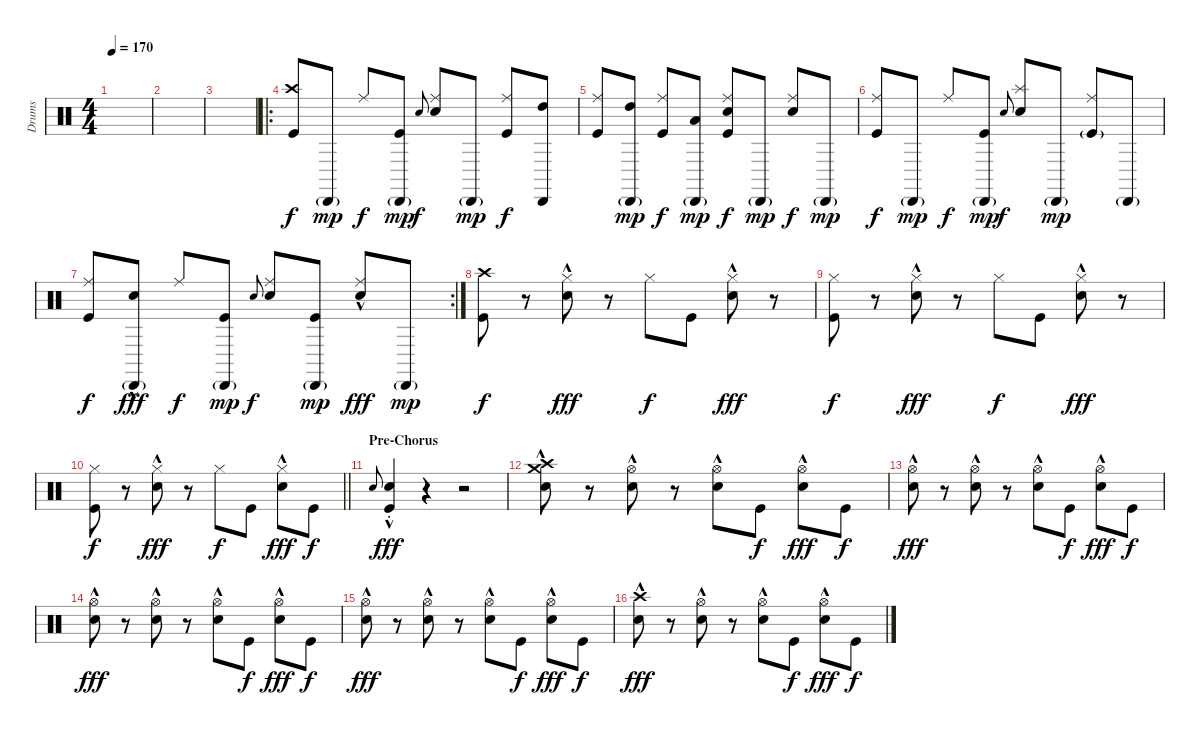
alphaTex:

\track ("Drums" "Drums") {instrument percussion}
\staff {score}
\articulation defaults
\ts (4 4)
\tempo 170
\clef neutral
\ks c
|
|
|
\ro
("Crash high (hit)" "Kick (hit)").8 "Cabasa (hit)"{g}.8{dy mp} "Ride (middle)".8{dy f} ("Cabasa (hit)"{g} "Kick (hit)").8{dy mp} "Electric Snare (hit)"{sl}.8{gr onbeat dy f} ("Ride (middle)" "Electric Snare (hit)").8 "Cabasa (hit)"{g}.8{dy mp} ("Ride (middle)" "Kick (hit)").8{dy f} ("Cabasa (hit)" "High Tom (hit)").8 |
("Ride (middle)" "Kick (hit)").8 ("Cabasa (hit)"{g} "High Tom (hit)").8{dy mp} ("Ride (middle)" "Kick (hit)").8{dy f} ("Cabasa (hit)"{g} "Low Tom (hit)").8{dy mp} ("Ride (middle)" "Electric Snare (hit)" "Kick (hit)").8{dy f} "Cabasa (hit)"{g}.8{dy mp} ("Ride (middle)" "Electric Snare (hit)").8{dy f} "Cabasa (hit)"{g}.8{dy mp} |
("Ride (middle)" "Kick (hit)").8{dy f} "Cabasa (hit)"{g}.8{dy mp} "Ride (middle)".8{dy f} ("Cabasa (hit)"{g} "Kick (hit)").8{dy mp} "Electric Snare (hit)"{sl}.8{gr onbeat dy f} ("Electric Snare (hit)" "Splash (hit)").8 "Cabasa (hit)"{g}.8{dy mp} ("Ride (middle)" "Kick (hit)"{g}).8 "Cabasa (hit)"{g}.8 |
\rc 2
("Ride (middle)" "Kick (hit)").8{dy f} ("Cabasa (hit)"{g} "Electric Snare (hit)"{hac}).8{dy fff} "Ride (middle)".8{dy f} ("Cabasa (hit)"{g} "Kick (hit)").8{dy mp} "Electric Snare (hit)"{sl}.8{gr onbeat dy f} ("Ride (middle)" "Electric Snare (hit)").8 ("Cabasa (hit)"{g} "Kick (hit)").8{dy mp} ("Ride (middle)" "Electric Snare (hit)"{hac}).8{dy fff} "Cabasa (hit)"{g}.8{dy mp} |
("Crash high (hit)" "Kick (hit)").8{dy f} r.8 ("Hi-Hat (closed)" "Electric Snare (hit)"{hac}).8{dy fff} r.8 "Hi-Hat (closed)".8{dy f} "Kick (hit)".8 ("Hi-Hat (closed)" "Electric Snare (hit)"{hac}).8{dy fff} r.8 |
("Hi-Hat (closed)" "Kick (hit)").8{dy f} r.8 ("Hi-Hat (closed)" "Electric Snare (hit)"{hac}).8{dy fff} r.8 "Hi-Hat (closed)".8{dy f} "Kick (hit)".8 ("Hi-Hat (closed)" "Electric Snare (hit)"{hac}).8{dy fff} r.8 |
\barLineRight lightlight
("Hi-Hat (closed)" "Kick (hit)").8{dy f} r.8 ("Hi-Hat (closed)" "Electric Snare (hit)"{hac}).8{dy fff} r.8 "Hi-Hat (closed)".8{dy f} "Kick (hit)".8 ("Hi-Hat (closed)" "Electric Snare (hit)"{hac}).8{dy fff} "Kick (hit)".8{dy f} |
\section ("" "Pre-Chorus")
"Electric Snare (hit)"{h}.8{gr onbeat} ("Electric Snare (hit)"{hac st} "Kick (hit)"{hac}).4{dy fff} r.4 r.2 |
("Crash medium (hit)" "Crash high (hit)"{hac} "Electric Snare (hit)"{hac}).8 r.8 ("Hi-Hat (open)"{hac} "Electric Snare (hit)"{hac}).8 r.8 ("Hi-Hat (open)"{hac} "Electric Snare (hit)"{hac}).8 "Kick (hit)".8{dy f} ("Hi-Hat (open)"{hac} "Electric Snare (hit)"{hac}).8{dy fff} "Kick (hit)".8{dy f} |
("Hi-Hat (open)"{hac} "Electric Snare (hit)"{hac}).8{dy fff} r.8 ("Hi-Hat (open)"{hac} "Electric Snare (hit)"{hac}).8 r.8 ("Hi-Hat (open)"{hac} "Electric Snare (hit)"{hac}).8 "Kick (hit)".8{dy f} ("Hi-Hat (open)"{hac} "Electric Snare (hit)"{hac}).8{dy fff} "Kick (hit)".8{dy f} |
("Hi-Hat (open)"{hac} "Electric Snare (hit)"{hac}).8{dy fff} r.8 ("Hi-Hat (open)"{hac} "Electric Snare (hit)"{hac}).8 r.8 ("Hi-Hat (open)"{hac} "Electric Snare (hit)"{hac}).8 "Kick (hit)".8{dy f} ("Hi-Hat (open)"{hac} "Electric Snare (hit)"{hac}).8{dy fff} "Kick (hit)".8{dy f} |
("Hi-Hat (open)"{hac} "Electric Snare (hit)"{hac}).8{dy fff} r.8 ("Hi-Hat (open)"{hac} "Electric Snare (hit)"{hac}).8 r.8 ("Hi-Hat (open)"{hac} "Electric Snare (hit)"{hac}).8 "Kick (hit)".8{dy f} ("Hi-Hat (open)"{hac} "Electric Snare (hit)"{hac}).8{dy fff} "Kick (hit)".8{dy f} |
("Crash high (hit)"{hac} "Electric Snare (hit)"{hac}).8{dy fff} r.8 ("Hi-Hat (open)"{hac} "Electric Snare (hit)"{hac}).8 r.8 ("Hi-Hat (open)"{hac} "Electric Snare (hit)"{hac}).8 "Kick (hit)".8{dy f} ("Hi-Hat (open)"{hac} "Electric Snare (hit)"{hac}).8{dy fff} "Kick (hit)".8{dy f}
